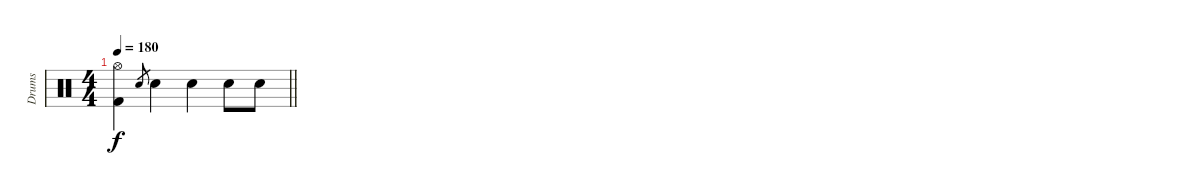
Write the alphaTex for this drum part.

\track ("Drums" "Drums") {instrument percussion}
\staff {score}
\articulation defaults
\ts (4 4)
\tempo 180
\clef neutral
\barLineRight lightlight
\ks c
("Hi-Hat (open)" "Kick (hit) 2").4{dy f} "Electric Snare (hit)".8{gr} "Electric Snare (hit)".4 "Electric Snare (hit)".4 "Electric Snare (hit)".8 "Electric Snare (hit)".8
